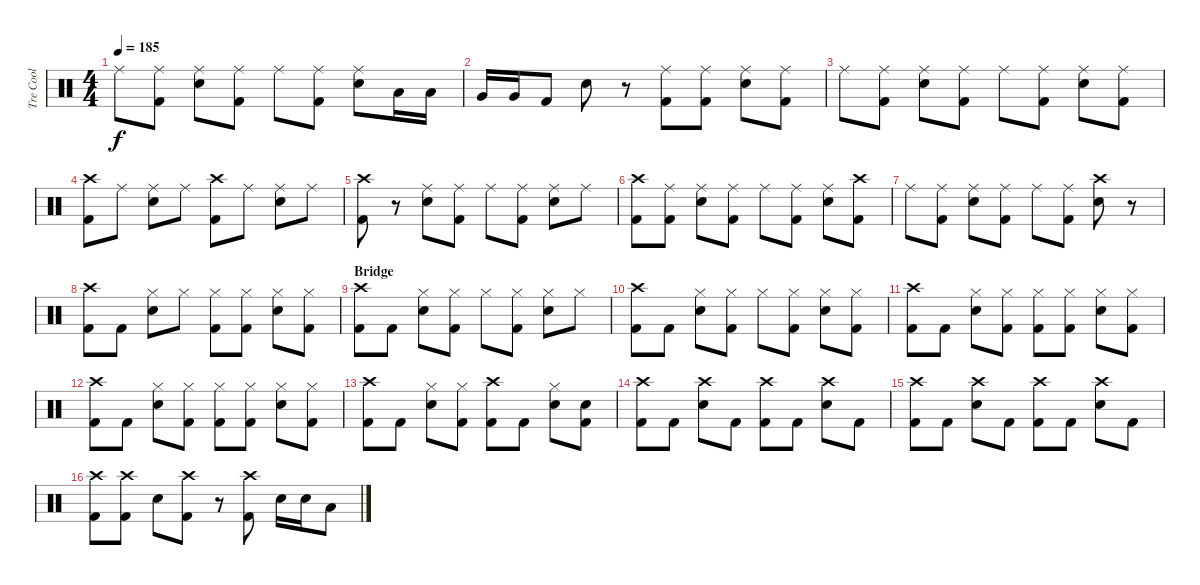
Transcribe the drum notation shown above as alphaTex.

\track ("Tre Cool" "Tre Cool") {instrument percussion}
\staff {score}
\articulation defaults
\ts (4 4)
\tempo 185
\clef neutral
\ks c "Ride (middle)".8{dy f}
("Ride (middle)" "Kick (hit) 2").8 ("Ride (middle)" "Electric Snare (hit)").8 ("Ride (middle)" "Kick (hit) 2").8 "Ride (middle)".8 ("Ride (middle)" "Kick (hit) 2").8 ("Ride (middle)" "Electric Snare (hit)").8 "Low Tom (hit)".16 "Low Tom (hit)".16 |
"Very Low Tom (hit)".16 "Very Low Tom (hit)".16 "Kick (hit) 2".8 "Electric Snare (hit)".8 r.8 ("Ride (middle)" "Kick (hit) 2").8 ("Ride (middle)" "Kick (hit) 2").8 ("Ride (middle)" "Electric Snare (hit)").8 ("Ride (middle)" "Kick (hit) 2").8 |
"Ride (middle)".8 ("Ride (middle)" "Kick (hit) 2").8 ("Ride (middle)" "Electric Snare (hit)").8 ("Ride (middle)" "Kick (hit) 2").8 "Ride (middle)".8 ("Ride (middle)" "Kick (hit) 2").8 ("Ride (middle)" "Electric Snare (hit)").8 ("Ride (middle)" "Kick (hit) 2").8 |
("Crash high (hit)" "Kick (hit) 2").8 "Ride (middle)".8 ("Ride (middle)" "Electric Snare (hit)").8 "Ride (middle)".8 ("Crash high (hit)" "Kick (hit) 2").8 "Ride (middle)".8 ("Ride (middle)" "Electric Snare (hit)").8 "Ride (middle)".8 |
("Crash high (hit)" "Kick (hit) 2").8 r.8 ("Ride (middle)" "Electric Snare (hit)").8 ("Ride (middle)" "Kick (hit) 2").8 "Ride (middle)".8 ("Ride (middle)" "Kick (hit) 2").8 ("Ride (middle)" "Electric Snare (hit)").8 "Ride (middle)".8 |
("Crash high (hit)" "Kick (hit) 2").8 ("Ride (middle)" "Kick (hit) 2").8 ("Ride (middle)" "Electric Snare (hit)").8 ("Ride (middle)" "Kick (hit) 2").8 "Ride (middle)".8 ("Ride (middle)" "Kick (hit) 2").8 ("Ride (middle)" "Electric Snare (hit)").8 ("Crash high (hit)" "Kick (hit) 2").8 |
"Ride (middle)".8 ("Ride (middle)" "Kick (hit) 2").8 ("Ride (middle)" "Electric Snare (hit)").8 ("Ride (middle)" "Kick (hit) 2").8 "Ride (middle)".8 ("Ride (middle)" "Kick (hit) 2").8 ("Crash high (hit)" "Electric Snare (hit)").8 r.8 |
("Crash high (hit)" "Kick (hit) 2").8 "Kick (hit) 2".8 ("Hi-Hat (closed)" "Electric Snare (hit)").8 "Hi-Hat (closed)".8 ("Hi-Hat (closed)" "Kick (hit) 2").8 ("Hi-Hat (closed)" "Kick (hit) 2").8 ("Hi-Hat (closed)" "Electric Snare (hit)").8 ("Hi-Hat (closed)" "Kick (hit) 2").8 |
\section ("" "Bridge")
("Crash high (hit)" "Kick (hit) 2").8 "Kick (hit) 2".8 ("Hi-Hat (closed)" "Electric Snare (hit)").8 ("Hi-Hat (closed)" "Kick (hit) 2").8 "Hi-Hat (closed)".8 ("Hi-Hat (closed)" "Kick (hit) 2").8 ("Hi-Hat (closed)" "Electric Snare (hit)").8 "Hi-Hat (closed)".8 |
("Crash high (hit)" "Kick (hit) 2").8 "Kick (hit) 2".8 ("Hi-Hat (closed)" "Electric Snare (hit)").8 ("Hi-Hat (closed)" "Kick (hit) 2").8 "Hi-Hat (closed)".8 ("Hi-Hat (closed)" "Kick (hit) 2").8 ("Hi-Hat (closed)" "Electric Snare (hit)").8 ("Hi-Hat (closed)" "Kick (hit) 2").8 |
("Crash high (hit)" "Kick (hit) 2").8 "Kick (hit) 2".8 ("Hi-Hat (closed)" "Electric Snare (hit)").8 ("Hi-Hat (closed)" "Kick (hit) 2").8 ("Hi-Hat (closed)" "Kick (hit) 2").8 ("Hi-Hat (closed)" "Kick (hit) 2").8 ("Hi-Hat (closed)" "Electric Snare (hit)").8 ("Hi-Hat (closed)" "Kick (hit) 2").8 |
("Crash high (hit)" "Kick (hit) 2").8 "Kick (hit) 2".8 ("Hi-Hat (closed)" "Electric Snare (hit)").8 ("Hi-Hat (closed)" "Kick (hit) 2").8 ("Hi-Hat (closed)" "Kick (hit) 2").8 ("Hi-Hat (closed)" "Kick (hit) 2").8 ("Hi-Hat (closed)" "Electric Snare (hit)").8 ("Hi-Hat (closed)" "Kick (hit) 2").8 |
("Crash high (hit)" "Kick (hit) 2").8 "Kick (hit) 2".8 ("Hi-Hat (closed)" "Electric Snare (hit)").8 ("Hi-Hat (closed)" "Kick (hit) 2").8 ("Crash high (hit)" "Kick (hit) 2").8 "Kick (hit) 2".8 ("Hi-Hat (closed)" "Electric Snare (hit)").8 ("Snare (hit)" "Kick (hit) 2").8 |
("Crash high (hit)" "Kick (hit) 2").8 "Kick (hit) 2".8 ("Crash high (hit)" "Electric Snare (hit)").8 "Kick (hit) 2".8 ("Crash high (hit)" "Kick (hit) 2").8 "Kick (hit) 2".8 ("Crash high (hit)" "Electric Snare (hit)").8 "Kick (hit) 2".8 |
("Crash high (hit)" "Kick (hit) 2").8 "Kick (hit) 2".8 ("Crash high (hit)" "Electric Snare (hit)").8 "Kick (hit) 2".8 ("Crash high (hit)" "Kick (hit) 2").8 "Kick (hit) 2".8 ("Crash high (hit)" "Electric Snare (hit)").8 "Kick (hit) 2".8 |
("Crash high (hit)" "Kick (hit) 2").8 ("Crash high (hit)" "Kick (hit) 2").8 "Electric Snare (hit)".8 ("Crash high (hit)" "Kick (hit) 2").8 r.8 ("Crash high (hit)" "Kick (hit) 2").8 "Electric Snare (hit)".16 "Electric Snare (hit)".16 "Low Tom (hit)".8
